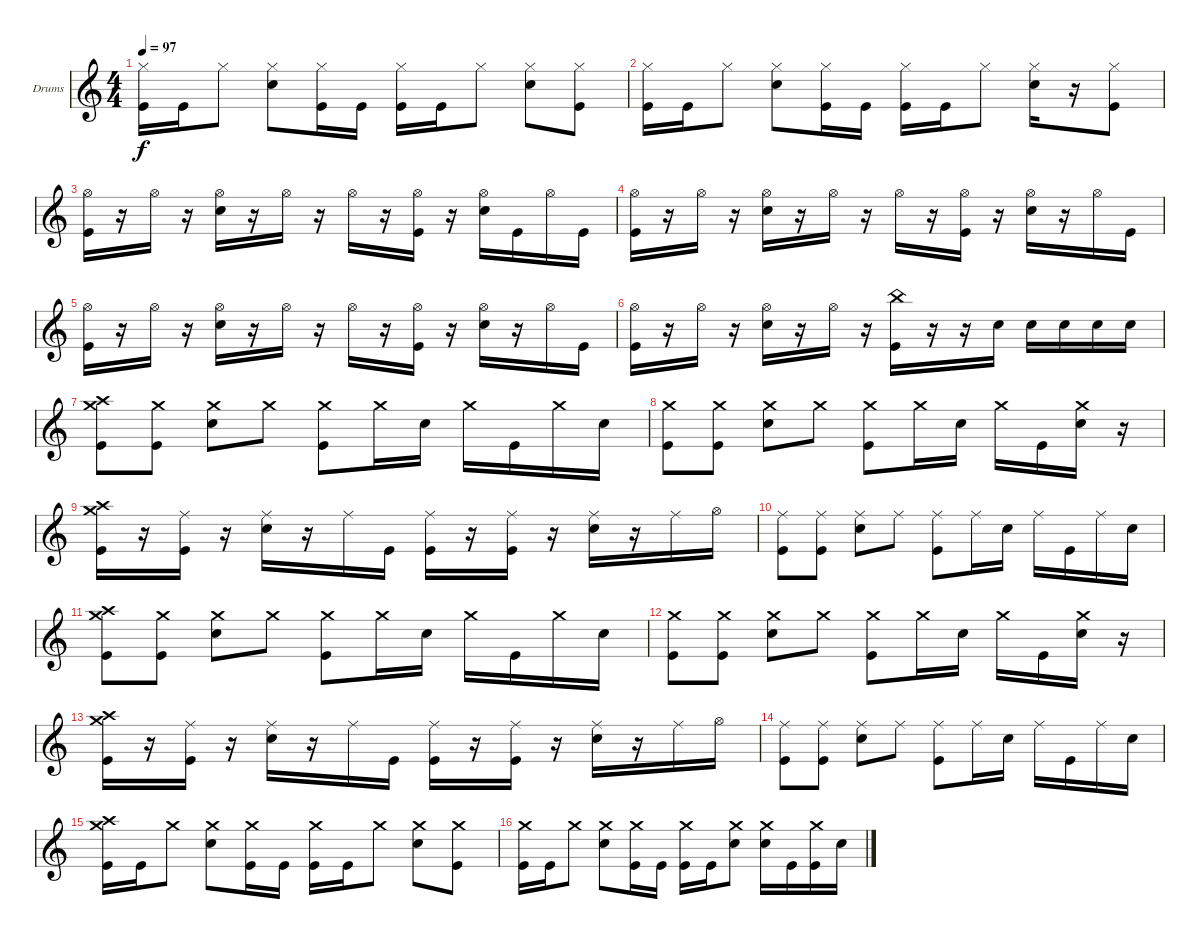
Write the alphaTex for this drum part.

\defaultSystemsLayout 4
\bracketExtendMode groupsimilarinstruments
\firstSystemTrackNameOrientation horizontal
\otherSystemsTrackNameOrientation horizontal
\track ("David Buckner" "Drums") {instrument percussion}
\staff {score}
\articulation defaults
\ts (4 4)
\tempo 97
\clef g2
\ks c
("Kick (hit)" "Hi-Hat (closed)").16{dy f} "Kick (hit)".16 "Hi-Hat (closed)".8 ("Snare (hit) 2" "Hi-Hat (closed)").8 ("Kick (hit)" "Hi-Hat (closed)").16 "Kick (hit)".16 ("Kick (hit)" "Hi-Hat (closed)").16 "Kick (hit)".16 "Hi-Hat (closed)".8 ("Snare (hit) 2" "Hi-Hat (closed)").8 ("Kick (hit)" "Hi-Hat (closed)").8 |
("Kick (hit)" "Hi-Hat (closed)").16 "Kick (hit)".16 "Hi-Hat (closed)".8 ("Snare (hit) 2" "Hi-Hat (closed)").8 ("Kick (hit)" "Hi-Hat (closed)").16 "Kick (hit)".16 ("Kick (hit)" "Hi-Hat (closed)").16 "Kick (hit)".16 "Hi-Hat (closed)".8 ("Hi-Hat (closed)" "Snare (hit) 2").16 r.16 ("Hi-Hat (closed)" "Kick (hit)").8 |
("Kick (hit)" "Hi-Hat (open)").16 r.16 "Hi-Hat (open)".16 r.16 ("Hi-Hat (open)" "Snare (hit) 2").16 r.16 "Hi-Hat (open)".16 r.16 "Hi-Hat (open)".16 r.16 ("Hi-Hat (open)" "Kick (hit)").16 r.16 ("Hi-Hat (open)" "Snare (hit) 2").16 "Kick (hit)".16 "Hi-Hat (open)".16 "Kick (hit)".16 |
("Kick (hit)" "Hi-Hat (open)").16 r.16 "Hi-Hat (open)".16 r.16 ("Hi-Hat (open)" "Snare (hit) 2").16 r.16 "Hi-Hat (open)".16 r.16 "Hi-Hat (open)".16 r.16 ("Hi-Hat (open)" "Kick (hit)").16 r.16 ("Hi-Hat (open)" "Snare (hit) 2").16 r.16 "Hi-Hat (open)".16 "Kick (hit)".16 |
("Kick (hit)" "Hi-Hat (open)").16 r.16 "Hi-Hat (open)".16 r.16 ("Hi-Hat (open)" "Snare (hit) 2").16 r.16 "Hi-Hat (open)".16 r.16 "Hi-Hat (open)".16 r.16 ("Hi-Hat (open)" "Kick (hit)").16 r.16 ("Hi-Hat (open)" "Snare (hit) 2").16 r.16 "Hi-Hat (open)".16 "Kick (hit)".16 |
("Kick (hit)" "Hi-Hat (open)").16 r.16 "Hi-Hat (open)".16 r.16 ("Hi-Hat (open)" "Snare (hit) 2").16 r.16 "Hi-Hat (open)".16 r.16 ("Kick (hit)" "China (hit)").16 r.16 r.16 "Snare (hit) 2".16 "Snare (hit) 2".16 "Snare (hit) 2".16 "Snare (hit) 2".16 "Snare (hit) 2".16 |
("Kick (hit)" "Crash medium (hit)" "Crash high (hit)").8 ("Kick (hit)" "Crash medium (hit)").8 ("Snare (hit) 2" "Crash medium (hit)").8 "Crash medium (hit)".8 ("Kick (hit)" "Crash medium (hit)").8 "Crash medium (hit)".16 "Snare (hit) 2".16 "Crash medium (hit)".16 "Kick (hit)".16 "Crash medium (hit)".16 "Snare (hit) 2".16 |
("Kick (hit)" "Crash medium (hit)").8 ("Kick (hit)" "Crash medium (hit)").8 ("Snare (hit) 2" "Crash medium (hit)").8 "Crash medium (hit)".8 ("Kick (hit)" "Crash medium (hit)").8 "Crash medium (hit)".16 "Snare (hit) 2".16 "Crash medium (hit)".16 "Kick (hit)".16 ("Crash medium (hit)" "Snare (hit) 2").16 r.16 |
("Crash medium (hit)" "Crash high (hit)" "Kick (hit)").16 r.16 ("Kick (hit)" "Ride (middle)").16 r.16 ("Snare (hit) 2" "Ride (middle)").16 r.16 "Ride (middle)".16 "Kick (hit)".16 ("Kick (hit)" "Ride (middle)").16 r.16 ("Kick (hit)" "Ride (middle)").16 r.16 ("Ride (middle)" "Snare (hit) 2").16 r.16 "Ride (middle)".16 "Hi-Hat (open)".16 |
("Kick (hit)" "Ride (middle)").8 ("Kick (hit)" "Ride (middle)").8 ("Snare (hit) 2" "Ride (middle)").8 "Ride (middle)".8 ("Kick (hit)" "Ride (middle)").8 "Ride (middle)".16 "Snare (hit) 2".16 "Ride (middle)".16 "Kick (hit)".16 "Ride (middle)".16 "Snare (hit) 2".16 |
("Kick (hit)" "Crash medium (hit)" "Crash high (hit)").8 ("Kick (hit)" "Crash medium (hit)").8 ("Snare (hit) 2" "Crash medium (hit)").8 "Crash medium (hit)".8 ("Kick (hit)" "Crash medium (hit)").8 "Crash medium (hit)".16 "Snare (hit) 2".16 "Crash medium (hit)".16 "Kick (hit)".16 "Crash medium (hit)".16 "Snare (hit) 2".16 |
("Kick (hit)" "Crash medium (hit)").8 ("Kick (hit)" "Crash medium (hit)").8 ("Snare (hit) 2" "Crash medium (hit)").8 "Crash medium (hit)".8 ("Kick (hit)" "Crash medium (hit)").8 "Crash medium (hit)".16 "Snare (hit) 2".16 "Crash medium (hit)".16 "Kick (hit)".16 ("Crash medium (hit)" "Snare (hit) 2").16 r.16 |
("Crash medium (hit)" "Crash high (hit)" "Kick (hit)").16 r.16 ("Kick (hit)" "Ride (middle)").16 r.16 ("Snare (hit) 2" "Ride (middle)").16 r.16 "Ride (middle)".16 "Kick (hit)".16 ("Kick (hit)" "Ride (middle)").16 r.16 ("Kick (hit)" "Ride (middle)").16 r.16 ("Ride (middle)" "Snare (hit) 2").16 r.16 "Ride (middle)".16 "Hi-Hat (open)".16 |
("Kick (hit)" "Ride (middle)").8 ("Kick (hit)" "Ride (middle)").8 ("Snare (hit) 2" "Ride (middle)").8 "Ride (middle)".8 ("Kick (hit)" "Ride (middle)").8 "Ride (middle)".16 "Snare (hit) 2".16 "Ride (middle)".16 "Kick (hit)".16 "Ride (middle)".16 "Snare (hit) 2".16 |
("Kick (hit)" "Crash high (hit)" "Crash medium (hit)").16 "Kick (hit)".16 "Crash medium (hit)".8 ("Snare (hit) 2" "Crash medium (hit)").8 ("Kick (hit)" "Crash medium (hit)").16 "Kick (hit)".16 ("Kick (hit)" "Crash medium (hit)").16 "Kick (hit)".16 "Crash medium (hit)".8 ("Snare (hit) 2" "Crash medium (hit)").8 ("Kick (hit)" "Crash medium (hit)").8 |
("Kick (hit)" "Crash medium (hit)").16 "Kick (hit)".16 "Crash medium (hit)".8 ("Snare (hit) 2" "Crash medium (hit)").8 ("Kick (hit)" "Crash medium (hit)").16 "Kick (hit)".16 ("Kick (hit)" "Crash medium (hit)").16 "Kick (hit)".16 ("Crash medium (hit)" "Snare (hit) 2").8 ("Snare (hit) 2" "Crash medium (hit)").16 "Kick (hit)".16 ("Kick (hit)" "Crash medium (hit)").16 "Snare (hit) 2".16
